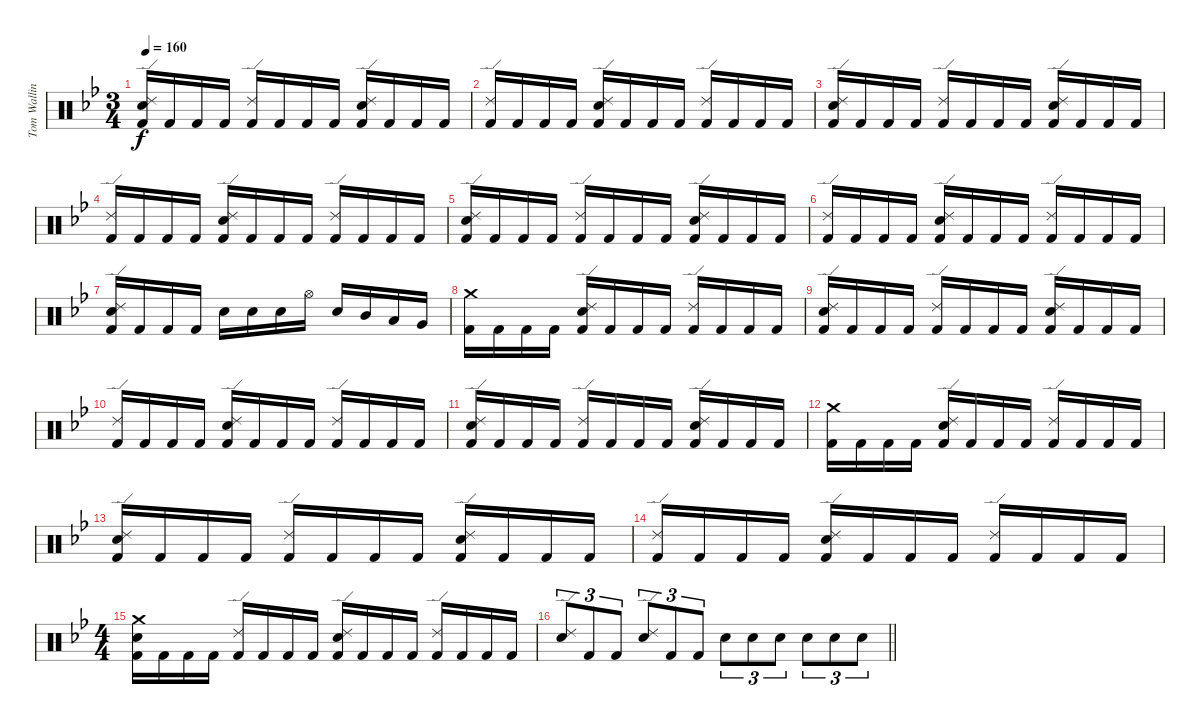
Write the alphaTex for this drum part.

\track ("Tom Walling (drums)" "Tom Wallin") {instrument percussion}
\staff {score}
\articulation defaults
\ts (3 4)
\tempo 160
\clef neutral
\ks gminor
("Electric Snare (hit)" "Kick (hit) 2" "Ride (edge) 2").16{dy f} "Kick (hit) 2".16 "Kick (hit) 2".16 "Kick (hit) 2".16 ("Kick (hit) 2" "Ride (edge) 2").16 "Kick (hit) 2".16 "Kick (hit) 2".16 "Kick (hit) 2".16 ("Electric Snare (hit)" "Kick (hit) 2" "Ride (edge) 2").16 "Kick (hit) 2".16 "Kick (hit) 2".16 "Kick (hit) 2".16 |
("Ride (edge) 2" "Kick (hit) 2").16 "Kick (hit) 2".16 "Kick (hit) 2".16 "Kick (hit) 2".16 ("Electric Snare (hit)" "Kick (hit) 2" "Ride (edge) 2").16 "Kick (hit) 2".16 "Kick (hit) 2".16 "Kick (hit) 2".16 ("Kick (hit) 2" "Ride (edge) 2").16 "Kick (hit) 2".16 "Kick (hit) 2".16 "Kick (hit) 2".16 |
("Electric Snare (hit)" "Kick (hit) 2" "Ride (edge) 2").16 "Kick (hit) 2".16 "Kick (hit) 2".16 "Kick (hit) 2".16 ("Kick (hit) 2" "Ride (edge) 2").16 "Kick (hit) 2".16 "Kick (hit) 2".16 "Kick (hit) 2".16 ("Electric Snare (hit)" "Kick (hit) 2" "Ride (edge) 2").16 "Kick (hit) 2".16 "Kick (hit) 2".16 "Kick (hit) 2".16 |
("Ride (edge) 2" "Kick (hit) 2").16 "Kick (hit) 2".16 "Kick (hit) 2".16 "Kick (hit) 2".16 ("Electric Snare (hit)" "Kick (hit) 2" "Ride (edge) 2").16 "Kick (hit) 2".16 "Kick (hit) 2".16 "Kick (hit) 2".16 ("Kick (hit) 2" "Ride (edge) 2").16 "Kick (hit) 2".16 "Kick (hit) 2".16 "Kick (hit) 2".16 |
("Electric Snare (hit)" "Kick (hit) 2" "Ride (edge) 2").16 "Kick (hit) 2".16 "Kick (hit) 2".16 "Kick (hit) 2".16 ("Kick (hit) 2" "Ride (edge) 2").16 "Kick (hit) 2".16 "Kick (hit) 2".16 "Kick (hit) 2".16 ("Electric Snare (hit)" "Kick (hit) 2" "Ride (edge) 2").16 "Kick (hit) 2".16 "Kick (hit) 2".16 "Kick (hit) 2".16 |
("Ride (edge) 2" "Kick (hit) 2").16 "Kick (hit) 2".16 "Kick (hit) 2".16 "Kick (hit) 2".16 ("Electric Snare (hit)" "Kick (hit) 2" "Ride (edge) 2").16 "Kick (hit) 2".16 "Kick (hit) 2".16 "Kick (hit) 2".16 ("Kick (hit) 2" "Ride (edge) 2").16 "Kick (hit) 2".16 "Kick (hit) 2".16 "Kick (hit) 2".16 |
("Electric Snare (hit)" "Kick (hit) 2" "Ride (edge) 2").16 "Kick (hit) 2".16 "Kick (hit) 2".16 "Kick (hit) 2".16 "Electric Snare (hit)".16 "Electric Snare (hit)".16 "Electric Snare (hit)".16 "Hi-Hat (open)".16 "Electric Snare (hit)".16 "Mid Tom (hit)".16 "Low Tom (hit)".16 "Very Low Tom (hit)".16 |
("Kick (hit) 2" "Crash medium (hit)").16 "Kick (hit) 2".16 "Kick (hit) 2".16 "Kick (hit) 2".16 ("Electric Snare (hit)" "Kick (hit) 2" "Ride (edge) 2").16 "Kick (hit) 2".16 "Kick (hit) 2".16 "Kick (hit) 2".16 ("Kick (hit) 2" "Ride (edge) 2").16 "Kick (hit) 2".16 "Kick (hit) 2".16 "Kick (hit) 2".16 |
("Electric Snare (hit)" "Kick (hit) 2" "Ride (edge) 2").16 "Kick (hit) 2".16 "Kick (hit) 2".16 "Kick (hit) 2".16 ("Kick (hit) 2" "Ride (edge) 2").16 "Kick (hit) 2".16 "Kick (hit) 2".16 "Kick (hit) 2".16 ("Electric Snare (hit)" "Kick (hit) 2" "Ride (edge) 2").16 "Kick (hit) 2".16 "Kick (hit) 2".16 "Kick (hit) 2".16 |
("Ride (edge) 2" "Kick (hit) 2").16 "Kick (hit) 2".16 "Kick (hit) 2".16 "Kick (hit) 2".16 ("Electric Snare (hit)" "Kick (hit) 2" "Ride (edge) 2").16 "Kick (hit) 2".16 "Kick (hit) 2".16 "Kick (hit) 2".16 ("Kick (hit) 2" "Ride (edge) 2").16 "Kick (hit) 2".16 "Kick (hit) 2".16 "Kick (hit) 2".16 |
("Electric Snare (hit)" "Kick (hit) 2" "Ride (edge) 2").16 "Kick (hit) 2".16 "Kick (hit) 2".16 "Kick (hit) 2".16 ("Kick (hit) 2" "Ride (edge) 2").16 "Kick (hit) 2".16 "Kick (hit) 2".16 "Kick (hit) 2".16 ("Electric Snare (hit)" "Kick (hit) 2" "Ride (edge) 2").16 "Kick (hit) 2".16 "Kick (hit) 2".16 "Kick (hit) 2".16 |
("Kick (hit) 2" "Crash medium (hit)").16 "Kick (hit) 2".16 "Kick (hit) 2".16 "Kick (hit) 2".16 ("Electric Snare (hit)" "Kick (hit) 2" "Ride (edge) 2").16 "Kick (hit) 2".16 "Kick (hit) 2".16 "Kick (hit) 2".16 ("Kick (hit) 2" "Ride (edge) 2").16 "Kick (hit) 2".16 "Kick (hit) 2".16 "Kick (hit) 2".16 |
("Electric Snare (hit)" "Kick (hit) 2" "Ride (edge) 2").16 "Kick (hit) 2".16 "Kick (hit) 2".16 "Kick (hit) 2".16 ("Kick (hit) 2" "Ride (edge) 2").16 "Kick (hit) 2".16 "Kick (hit) 2".16 "Kick (hit) 2".16 ("Electric Snare (hit)" "Kick (hit) 2" "Ride (edge) 2").16 "Kick (hit) 2".16 "Kick (hit) 2".16 "Kick (hit) 2".16 |
("Ride (edge) 2" "Kick (hit) 2").16 "Kick (hit) 2".16 "Kick (hit) 2".16 "Kick (hit) 2".16 ("Electric Snare (hit)" "Kick (hit) 2" "Ride (edge) 2").16 "Kick (hit) 2".16 "Kick (hit) 2".16 "Kick (hit) 2".16 ("Kick (hit) 2" "Ride (edge) 2").16 "Kick (hit) 2".16 "Kick (hit) 2".16 "Kick (hit) 2".16 |
\ts (4 4)
("Crash medium (hit)" "Electric Snare (hit)" "Kick (hit) 2").16 "Kick (hit) 2".16 "Kick (hit) 2".16 "Kick (hit) 2".16 ("Kick (hit) 2" "Ride (edge) 2").16 "Kick (hit) 2".16 "Kick (hit) 2".16 "Kick (hit) 2".16 ("Electric Snare (hit)" "Kick (hit) 2" "Ride (edge) 2").16 "Kick (hit) 2".16 "Kick (hit) 2".16 "Kick (hit) 2".16 ("Ride (edge) 2" "Kick (hit) 2").16 "Kick (hit) 2".16 "Kick (hit) 2".16 "Kick (hit) 2".16 |
\barLineRight lightlight
("Ride (edge) 2" "Electric Snare (hit)").8{tu (3 2)} "Kick (hit) 2".8{tu (3 2)} "Kick (hit) 2".8{tu (3 2)} ("Ride (edge) 2" "Electric Snare (hit)").8{tu (3 2)} "Kick (hit) 2".8{tu (3 2)} "Kick (hit) 2".8{tu (3 2)} "Electric Snare (hit)".8{tu (3 2)} "Electric Snare (hit)".8{tu (3 2)} "Electric Snare (hit)".8{tu (3 2)} "Electric Snare (hit)".8{tu (3 2)} "Electric Snare (hit)".8{tu (3 2)} "Electric Snare (hit)".8{tu (3 2)}
